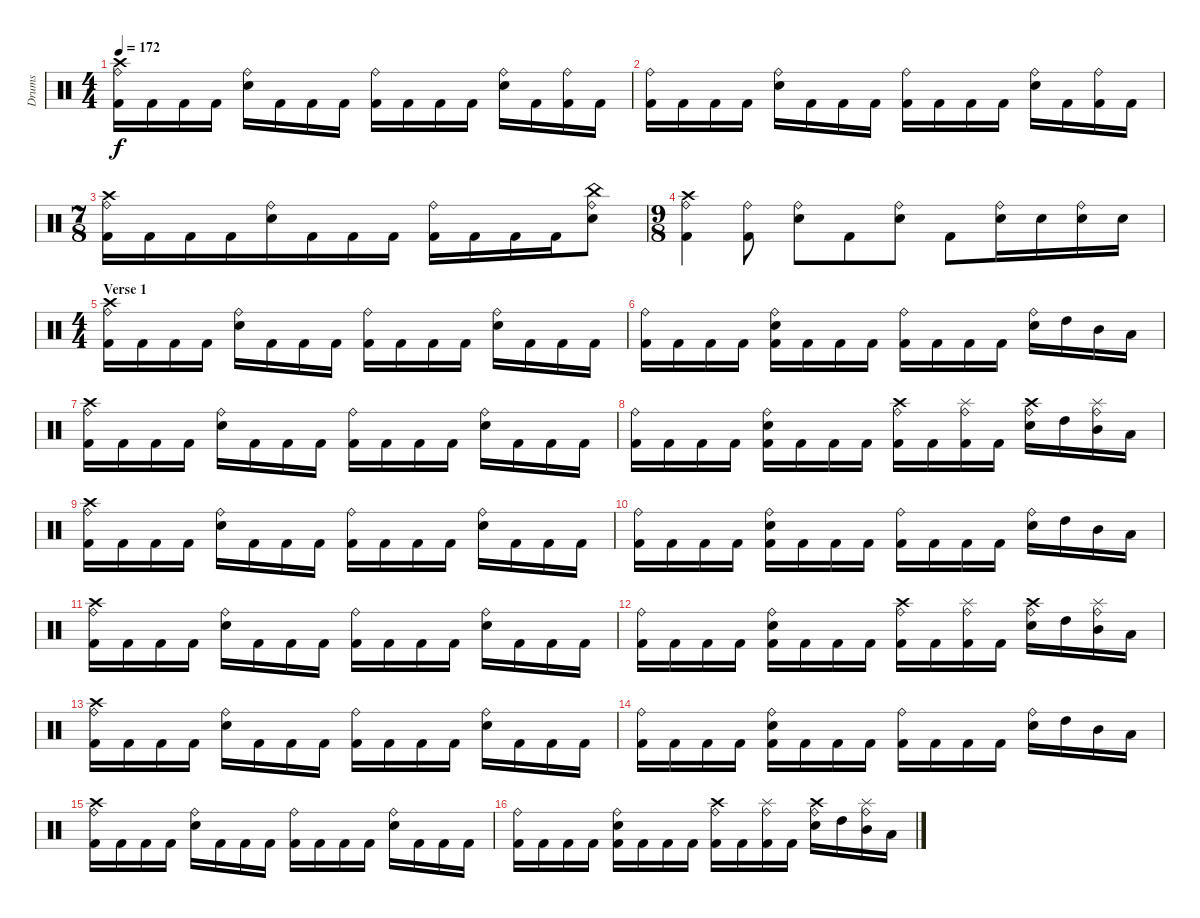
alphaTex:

\track ("Drums" "Drums") {instrument percussion}
\staff {score}
\articulation defaults
\ts (4 4)
\tempo 172
\clef neutral
\ks c
("Crash high (hit)" "Ride (bell)" "Kick (hit) 2").16{dy f} "Kick (hit) 2".16 "Kick (hit) 2".16 "Kick (hit) 2".16 ("Ride (bell)" "Electric Snare (hit)").16 "Kick (hit) 2".16 "Kick (hit) 2".16 "Kick (hit) 2".16 ("Ride (bell)" "Kick (hit) 2").16 "Kick (hit) 2".16 "Kick (hit) 2".16 "Kick (hit) 2".16 ("Ride (bell)" "Electric Snare (hit)").16 "Kick (hit) 2".16 ("Ride (bell)" "Kick (hit) 2").16 "Kick (hit) 2".16 |
("Ride (bell)" "Kick (hit) 2").16 "Kick (hit) 2".16 "Kick (hit) 2".16 "Kick (hit) 2".16 ("Ride (bell)" "Electric Snare (hit)").16 "Kick (hit) 2".16 "Kick (hit) 2".16 "Kick (hit) 2".16 ("Ride (bell)" "Kick (hit) 2").16 "Kick (hit) 2".16 "Kick (hit) 2".16 "Kick (hit) 2".16 ("Ride (bell)" "Electric Snare (hit)").16 "Kick (hit) 2".16 ("Ride (bell)" "Kick (hit) 2").16 "Kick (hit) 2".16 |
\ts (7 8)
("Crash high (hit)" "Ride (bell)" "Kick (hit) 2").16 "Kick (hit) 2".16 "Kick (hit) 2".16 "Kick (hit) 2".16 ("Ride (bell)" "Electric Snare (hit)").16 "Kick (hit) 2".16 "Kick (hit) 2".16 "Kick (hit) 2".16 ("Ride (bell)" "Kick (hit) 2").16 "Kick (hit) 2".16 "Kick (hit) 2".16 "Kick (hit) 2".16 ("China (hit)" "Ride (bell)" "Electric Snare (hit)").8 |
\ts (9 8)
("Crash high (hit)" "Ride (bell)" "Kick (hit) 2").4 ("Ride (bell)" "Kick (hit) 2").8 ("Ride (bell)" "Electric Snare (hit)").8 "Kick (hit) 2".8 ("Ride (bell)" "Electric Snare (hit)").8 "Kick (hit) 2".8 ("Ride (bell)" "Electric Snare (hit)").16 "Electric Snare (hit)".16 ("Ride (bell)" "Electric Snare (hit)").16 "Electric Snare (hit)".16 |
\ts (4 4)
\section ("" "Verse 1")
("Crash high (hit)" "Ride (bell)" "Kick (hit) 2").16 "Kick (hit) 2".16 "Kick (hit) 2".16 "Kick (hit) 2".16 ("Ride (bell)" "Electric Snare (hit)").16 "Kick (hit) 2".16 "Kick (hit) 2".16 "Kick (hit) 2".16 ("Ride (bell)" "Kick (hit) 2").16 "Kick (hit) 2".16 "Kick (hit) 2".16 "Kick (hit) 2".16 ("Ride (bell)" "Electric Snare (hit)").16 "Kick (hit) 2".16 "Kick (hit) 2".16 "Kick (hit) 2".16 |
("Ride (bell)" "Kick (hit) 2").16 "Kick (hit) 2".16 "Kick (hit) 2".16 "Kick (hit) 2".16 ("Ride (bell)" "Electric Snare (hit)" "Kick (hit) 2").16 "Kick (hit) 2".16 "Kick (hit) 2".16 "Kick (hit) 2".16 ("Ride (bell)" "Kick (hit) 2").16 "Kick (hit) 2".16 "Kick (hit) 2".16 "Kick (hit) 2".16 ("Ride (bell)" "Electric Snare (hit)").16 "High Tom (hit)".16 "Mid Tom (hit)".16 "Low Tom (hit)".16 |
("Crash high (hit)" "Ride (bell)" "Kick (hit) 2").16 "Kick (hit) 2".16 "Kick (hit) 2".16 "Kick (hit) 2".16 ("Ride (bell)" "Electric Snare (hit)").16 "Kick (hit) 2".16 "Kick (hit) 2".16 "Kick (hit) 2".16 ("Ride (bell)" "Kick (hit) 2").16 "Kick (hit) 2".16 "Kick (hit) 2".16 "Kick (hit) 2".16 ("Ride (bell)" "Electric Snare (hit)").16 "Kick (hit) 2".16 "Kick (hit) 2".16 "Kick (hit) 2".16 |
("Ride (bell)" "Kick (hit) 2").16 "Kick (hit) 2".16 "Kick (hit) 2".16 "Kick (hit) 2".16 ("Ride (bell)" "Electric Snare (hit)" "Kick (hit) 2").16 "Kick (hit) 2".16 "Kick (hit) 2".16 "Kick (hit) 2".16 ("Crash high (hit)" "Ride (bell)" "Kick (hit) 2").16 "Kick (hit) 2".16 ("Splash (hit)" "Ride (bell)" "Kick (hit) 2").16 "Kick (hit) 2".16 ("Crash high (hit)" "Ride (bell)" "Electric Snare (hit)").16 "High Tom (hit)".16 ("Splash (hit)" "Ride (bell)" "Mid Tom (hit)").16 "Low Tom (hit)".16 |
("Crash high (hit)" "Ride (bell)" "Kick (hit) 2").16 "Kick (hit) 2".16 "Kick (hit) 2".16 "Kick (hit) 2".16 ("Ride (bell)" "Electric Snare (hit)").16 "Kick (hit) 2".16 "Kick (hit) 2".16 "Kick (hit) 2".16 ("Ride (bell)" "Kick (hit) 2").16 "Kick (hit) 2".16 "Kick (hit) 2".16 "Kick (hit) 2".16 ("Ride (bell)" "Electric Snare (hit)").16 "Kick (hit) 2".16 "Kick (hit) 2".16 "Kick (hit) 2".16 |
("Ride (bell)" "Kick (hit) 2").16 "Kick (hit) 2".16 "Kick (hit) 2".16 "Kick (hit) 2".16 ("Ride (bell)" "Electric Snare (hit)" "Kick (hit) 2").16 "Kick (hit) 2".16 "Kick (hit) 2".16 "Kick (hit) 2".16 ("Ride (bell)" "Kick (hit) 2").16 "Kick (hit) 2".16 "Kick (hit) 2".16 "Kick (hit) 2".16 ("Ride (bell)" "Electric Snare (hit)").16 "High Tom (hit)".16 "Mid Tom (hit)".16 "Low Tom (hit)".16 |
("Crash high (hit)" "Ride (bell)" "Kick (hit) 2").16 "Kick (hit) 2".16 "Kick (hit) 2".16 "Kick (hit) 2".16 ("Ride (bell)" "Electric Snare (hit)").16 "Kick (hit) 2".16 "Kick (hit) 2".16 "Kick (hit) 2".16 ("Ride (bell)" "Kick (hit) 2").16 "Kick (hit) 2".16 "Kick (hit) 2".16 "Kick (hit) 2".16 ("Ride (bell)" "Electric Snare (hit)").16 "Kick (hit) 2".16 "Kick (hit) 2".16 "Kick (hit) 2".16 |
("Ride (bell)" "Kick (hit) 2").16 "Kick (hit) 2".16 "Kick (hit) 2".16 "Kick (hit) 2".16 ("Ride (bell)" "Electric Snare (hit)" "Kick (hit) 2").16 "Kick (hit) 2".16 "Kick (hit) 2".16 "Kick (hit) 2".16 ("Crash high (hit)" "Ride (bell)" "Kick (hit) 2").16 "Kick (hit) 2".16 ("Splash (hit)" "Ride (bell)" "Kick (hit) 2").16 "Kick (hit) 2".16 ("Crash high (hit)" "Ride (bell)" "Electric Snare (hit)").16 "High Tom (hit)".16 ("Splash (hit)" "Ride (bell)" "Mid Tom (hit)").16 "Low Tom (hit)".16 |
("Crash high (hit)" "Ride (bell)" "Kick (hit) 2").16 "Kick (hit) 2".16 "Kick (hit) 2".16 "Kick (hit) 2".16 ("Ride (bell)" "Electric Snare (hit)").16 "Kick (hit) 2".16 "Kick (hit) 2".16 "Kick (hit) 2".16 ("Ride (bell)" "Kick (hit) 2").16 "Kick (hit) 2".16 "Kick (hit) 2".16 "Kick (hit) 2".16 ("Ride (bell)" "Electric Snare (hit)").16 "Kick (hit) 2".16 "Kick (hit) 2".16 "Kick (hit) 2".16 |
("Ride (bell)" "Kick (hit) 2").16 "Kick (hit) 2".16 "Kick (hit) 2".16 "Kick (hit) 2".16 ("Ride (bell)" "Electric Snare (hit)" "Kick (hit) 2").16 "Kick (hit) 2".16 "Kick (hit) 2".16 "Kick (hit) 2".16 ("Ride (bell)" "Kick (hit) 2").16 "Kick (hit) 2".16 "Kick (hit) 2".16 "Kick (hit) 2".16 ("Ride (bell)" "Electric Snare (hit)").16 "High Tom (hit)".16 "Mid Tom (hit)".16 "Low Tom (hit)".16 |
("Crash high (hit)" "Ride (bell)" "Kick (hit) 2").16 "Kick (hit) 2".16 "Kick (hit) 2".16 "Kick (hit) 2".16 ("Ride (bell)" "Electric Snare (hit)").16 "Kick (hit) 2".16 "Kick (hit) 2".16 "Kick (hit) 2".16 ("Ride (bell)" "Kick (hit) 2").16 "Kick (hit) 2".16 "Kick (hit) 2".16 "Kick (hit) 2".16 ("Ride (bell)" "Electric Snare (hit)").16 "Kick (hit) 2".16 "Kick (hit) 2".16 "Kick (hit) 2".16 |
("Ride (bell)" "Kick (hit) 2").16 "Kick (hit) 2".16 "Kick (hit) 2".16 "Kick (hit) 2".16 ("Ride (bell)" "Electric Snare (hit)" "Kick (hit) 2").16 "Kick (hit) 2".16 "Kick (hit) 2".16 "Kick (hit) 2".16 ("Crash high (hit)" "Ride (bell)" "Kick (hit) 2").16 "Kick (hit) 2".16 ("Splash (hit)" "Ride (bell)" "Kick (hit) 2").16 "Kick (hit) 2".16 ("Crash high (hit)" "Ride (bell)" "Electric Snare (hit)").16 "High Tom (hit)".16 ("Splash (hit)" "Ride (bell)" "Mid Tom (hit)").16 "Low Tom (hit)".16
